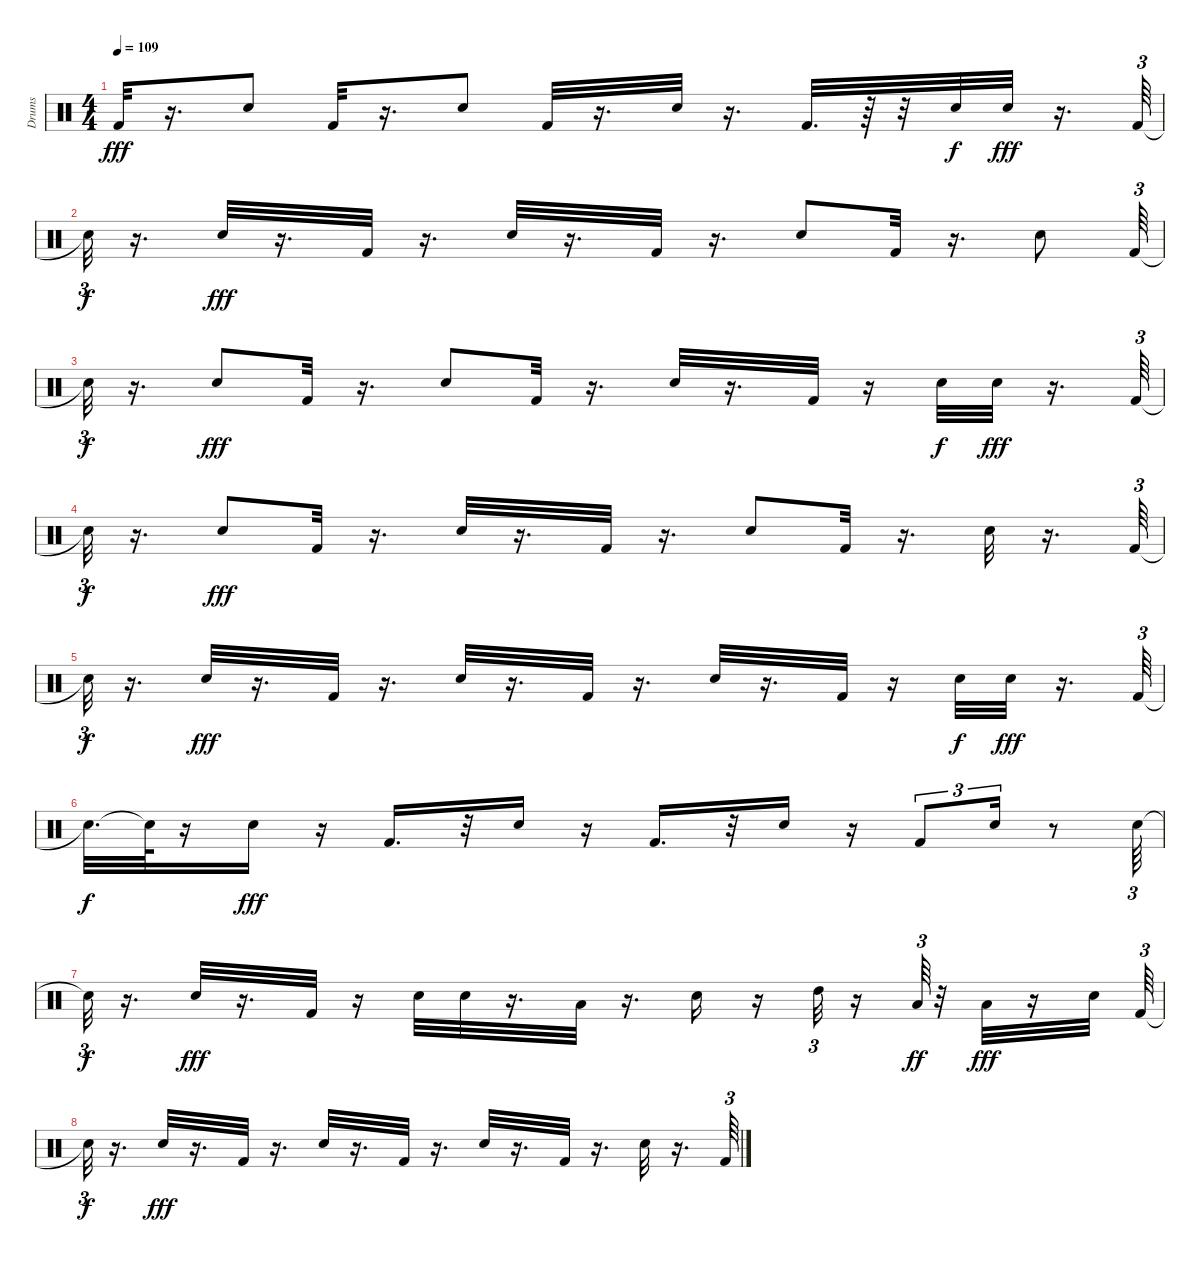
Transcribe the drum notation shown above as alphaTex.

\track ("Drums" "Drums") {instrument percussion}
\staff {score}
\articulation defaults
\ts (4 4)
\tempo 109
\clef neutral
\ks c "Kick (hit) 2".32{dy fff}
r.16{d} "Snare (hit) 2".8 "Kick (hit) 2".32 r.16{d} "Snare (hit) 2".8 "Kick (hit) 2".32 r.16{d} "Snare (hit) 2".32 r.16{d} "Kick (hit) 2".32{d} r.64 r.32 "Snare (hit) 2".32{dy f} "Snare (hit) 2".32{dy fff} r.16{d} "Kick (hit) 2".64{tu (3 2)} |
"Snare (hit)"{t}.32{tu (3 2) dy f} r.16{d} "Snare (hit) 2".32{dy fff} r.16{d} "Kick (hit) 2".32 r.16{d} "Snare (hit) 2".32 r.16{d} "Kick (hit) 2".32 r.16{d} "Snare (hit) 2".8 "Kick (hit) 2".32 r.16{d} "Snare (hit) 2".8 "Kick (hit) 2".64{tu (3 2)} |
"Snare (hit)"{t}.32{tu (3 2) dy f} r.16{d} "Snare (hit) 2".8{dy fff} "Kick (hit) 2".32 r.16{d} "Snare (hit) 2".8 "Kick (hit) 2".32 r.16{d} "Snare (hit) 2".32 r.16{d} "Kick (hit) 2".32 r.16 "Snare (hit) 2".32{dy f} "Snare (hit) 2".32{dy fff} r.16{d} "Kick (hit) 2".64{tu (3 2)} |
"Snare (hit)"{t}.32{tu (3 2) dy f} r.16{d} "Snare (hit) 2".8{dy fff} "Kick (hit) 2".32 r.16{d} "Snare (hit) 2".32 r.16{d} "Kick (hit) 2".32 r.16{d} "Snare (hit) 2".8 "Kick (hit) 2".32 r.16{d} "Snare (hit) 2".32 r.16{d} "Kick (hit) 2".64{tu (3 2)} |
"Snare (hit)"{t}.32{tu (3 2) dy f} r.16{d} "Snare (hit) 2".32{dy fff} r.16{d} "Kick (hit) 2".32 r.16{d} "Snare (hit) 2".32 r.16{d} "Kick (hit) 2".32 r.16{d} "Snare (hit) 2".32 r.16{d} "Kick (hit) 2".32 r.16 "Snare (hit) 2".32{dy f} "Snare (hit) 2".32{dy fff} r.16{d} "Kick (hit) 2".64{tu (3 2)} |
"Snare (hit)"{t}.32{d dy f} "Snare (hit)"{t}.64 r.16 "Snare (hit) 2".16{dy fff} r.16 "Kick (hit) 2".16{d} r.32 "Snare (hit) 2".16 r.16 "Kick (hit) 2".16{d} r.32 "Snare (hit) 2".16 r.16 "Kick (hit) 2".8{tu (3 2)} "Snare (hit) 2".16{tu (3 2)} r.8 "Snare (hit) 2".64{tu (3 2)} |
"Snare (hit)"{t}.32{tu (3 2) dy f} r.16{d} "Snare (hit) 2".32{dy fff} r.16{d} "Kick (hit) 2".32 r.16 "Snare (hit) 2".32 "Snare (hit) 2".32 r.16{d} "Low Floor Tom (hit)".32 r.16{d} "Snare (hit) 2".16 r.16 "High Tom (hit)".32{tu (3 2)} r.16 "Low Tom (hit)".64{tu (3 2) dy ff} r.32 "Low Floor Tom (hit)".32{dy fff} r.16 "Snare (hit) 2".32 "Kick (hit) 2".64{tu (3 2)} |
"Snare (hit)"{t}.32{tu (3 2) dy f} r.16{d} "Snare (hit) 2".32{dy fff} r.16{d} "Kick (hit) 2".32 r.16{d} "Snare (hit) 2".32 r.16{d} "Kick (hit) 2".32 r.16{d} "Snare (hit) 2".32 r.16{d} "Kick (hit) 2".32 r.16{d} "Snare (hit) 2".32 r.16{d} "Kick (hit) 2".64{tu (3 2)}
